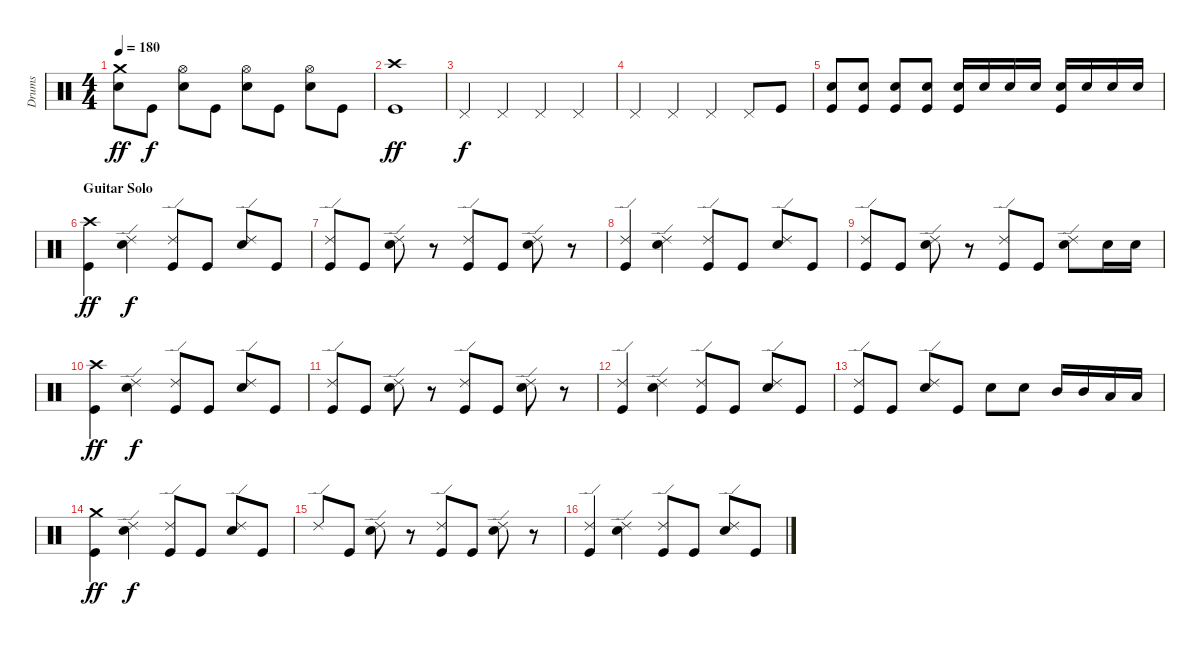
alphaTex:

\track ("Drums" "Drums") {instrument percussion}
\staff {score}
\articulation defaults
\ts (4 4)
\tempo 180
\clef neutral
\ks c
("Crash medium (hit)" "Snare (hit) 2").8{dy ff} "Kick (hit)".8{dy f} ("Hi-Hat (open)" "Snare (hit) 2").8 "Kick (hit)".8 ("Hi-Hat (open)" "Snare (hit) 2").8 "Kick (hit)".8 ("Hi-Hat (open)" "Snare (hit) 2").8 "Kick (hit)".8 |
("Crash high (hit)" "Kick (hit)").1{dy ff} |
"Pedal Hi-Hat (hit)".4{dy f} "Pedal Hi-Hat (hit)".4 "Pedal Hi-Hat (hit)".4 "Pedal Hi-Hat (hit)".4 |
"Pedal Hi-Hat (hit)".4 "Pedal Hi-Hat (hit)".4 "Pedal Hi-Hat (hit)".4 "Pedal Hi-Hat (hit)".8 "Kick (hit)".8 |
("Snare (hit) 2" "Kick (hit)").8 ("Snare (hit) 2" "Kick (hit)").8 ("Snare (hit) 2" "Kick (hit)").8 ("Snare (hit) 2" "Kick (hit)").8 ("Snare (hit) 2" "Kick (hit)").16 "Snare (hit) 2".16 "Snare (hit) 2".16 "Snare (hit) 2".16 ("Snare (hit) 2" "Kick (hit)").16 "Snare (hit) 2".16 "Snare (hit) 2".16 "Snare (hit) 2".16 |
\section ("" "Guitar Solo")
("Crash high (hit)" "Kick (hit)").4{dy ff} ("Ride (edge) 2" "Snare (hit) 2").4{dy f} ("Ride (edge) 2" "Kick (hit)").8 "Kick (hit)".8 ("Ride (edge) 2" "Snare (hit) 2").8 "Kick (hit)".8 |
("Ride (edge) 2" "Kick (hit)").8 "Kick (hit)".8 ("Ride (edge) 2" "Snare (hit) 2").8 r.8 ("Ride (edge) 2" "Kick (hit)").8 "Kick (hit)".8 ("Ride (edge) 2" "Snare (hit) 2").8 r.8 |
("Ride (edge) 2" "Kick (hit)").4 ("Ride (edge) 2" "Snare (hit) 2").4 ("Ride (edge) 2" "Kick (hit)").8 "Kick (hit)".8 ("Ride (edge) 2" "Snare (hit) 2").8 "Kick (hit)".8 |
("Ride (edge) 2" "Kick (hit)").8 "Kick (hit)".8 ("Ride (edge) 2" "Snare (hit) 2").8 r.8 ("Ride (edge) 2" "Kick (hit)").8 "Kick (hit)".8 ("Ride (edge) 2" "Snare (hit) 2").8 "Snare (hit) 2".16 "Snare (hit) 2".16 |
("Crash high (hit)" "Kick (hit)").4{dy ff} ("Ride (edge) 2" "Snare (hit) 2").4{dy f} ("Ride (edge) 2" "Kick (hit)").8 "Kick (hit)".8 ("Ride (edge) 2" "Snare (hit) 2").8 "Kick (hit)".8 |
("Ride (edge) 2" "Kick (hit)").8 "Kick (hit)".8 ("Ride (edge) 2" "Snare (hit) 2").8 r.8 ("Ride (edge) 2" "Kick (hit)").8 "Kick (hit)".8 ("Ride (edge) 2" "Snare (hit) 2").8 r.8 |
("Ride (edge) 2" "Kick (hit)").4 ("Ride (edge) 2" "Snare (hit) 2").4 ("Ride (edge) 2" "Kick (hit)").8 "Kick (hit)".8 ("Ride (edge) 2" "Snare (hit) 2").8 "Kick (hit)".8 |
("Ride (edge) 2" "Kick (hit)").8 "Kick (hit)".8 ("Ride (edge) 2" "Snare (hit) 2").8 "Kick (hit)".8 "Snare (hit) 2".8 "Snare (hit) 2".8 "Mid Tom (hit)".16 "Mid Tom (hit)".16 "Low Tom (hit)".16 "Low Tom (hit)".16 |
("Crash medium (hit)" "Kick (hit)").4{dy ff} ("Ride (edge) 2" "Snare (hit) 2").4{dy f} ("Ride (edge) 2" "Kick (hit)").8 "Kick (hit)".8 ("Ride (edge) 2" "Snare (hit) 2").8 "Kick (hit)".8 |
"Ride (edge) 2".8 "Kick (hit)".8 ("Ride (edge) 2" "Snare (hit) 2").8 r.8 ("Ride (edge) 2" "Kick (hit)").8 "Kick (hit)".8 ("Ride (edge) 2" "Snare (hit) 2").8 r.8 |
("Ride (edge) 2" "Kick (hit)").4 ("Ride (edge) 2" "Snare (hit) 2").4 ("Ride (edge) 2" "Kick (hit)").8 "Kick (hit)".8 ("Ride (edge) 2" "Snare (hit) 2").8 "Kick (hit)".8
